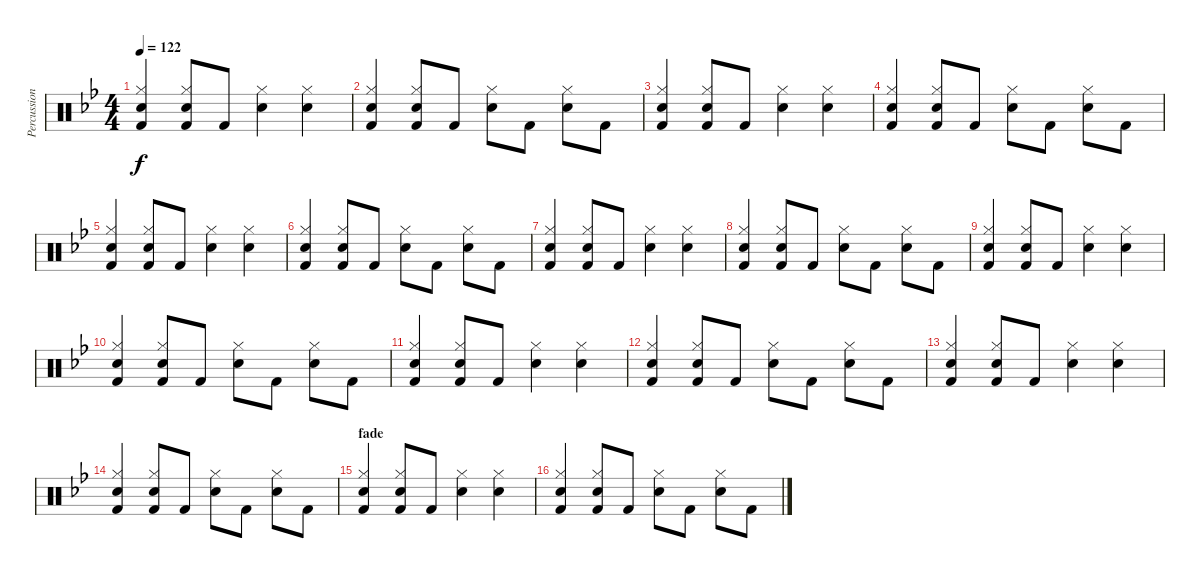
\track ("Percussion" "Percussion") {instrument percussion}
\staff {score}
\articulation defaults
\ts (4 4)
\tempo 122
\clef neutral
\ks bb
("Hand Clap (hit)" "Hi-Hat (closed)" "Kick (hit) 2").4{dy f} ("Hand Clap (hit)" "Hi-Hat (closed)" "Kick (hit) 2").8 "Kick (hit) 2".8 ("Hand Clap (hit)" "Hi-Hat (closed)").4 ("Hand Clap (hit)" "Hi-Hat (closed)").4 |
("Hand Clap (hit)" "Hi-Hat (closed)" "Kick (hit) 2").4 ("Hand Clap (hit)" "Hi-Hat (closed)" "Kick (hit) 2").8 "Kick (hit) 2".8 ("Hand Clap (hit)" "Hi-Hat (closed)").8 "Kick (hit) 2".8 ("Hand Clap (hit)" "Hi-Hat (closed)").8 "Kick (hit) 2".8 |
("Hand Clap (hit)" "Hi-Hat (closed)" "Kick (hit) 2").4 ("Hand Clap (hit)" "Hi-Hat (closed)" "Kick (hit) 2").8 "Kick (hit) 2".8 ("Hand Clap (hit)" "Hi-Hat (closed)").4 ("Hand Clap (hit)" "Hi-Hat (closed)").4 |
("Hand Clap (hit)" "Hi-Hat (closed)" "Kick (hit) 2").4 ("Hand Clap (hit)" "Hi-Hat (closed)" "Kick (hit) 2").8 "Kick (hit) 2".8 ("Hand Clap (hit)" "Hi-Hat (closed)").8 "Kick (hit) 2".8 ("Hand Clap (hit)" "Hi-Hat (closed)").8 "Kick (hit) 2".8 |
("Hand Clap (hit)" "Hi-Hat (closed)" "Kick (hit) 2").4 ("Hand Clap (hit)" "Hi-Hat (closed)" "Kick (hit) 2").8 "Kick (hit) 2".8 ("Hand Clap (hit)" "Hi-Hat (closed)").4 ("Hand Clap (hit)" "Hi-Hat (closed)").4 |
("Hand Clap (hit)" "Hi-Hat (closed)" "Kick (hit) 2").4 ("Hand Clap (hit)" "Hi-Hat (closed)" "Kick (hit) 2").8 "Kick (hit) 2".8 ("Hand Clap (hit)" "Hi-Hat (closed)").8 "Kick (hit) 2".8 ("Hand Clap (hit)" "Hi-Hat (closed)").8 "Kick (hit) 2".8 |
("Hand Clap (hit)" "Hi-Hat (closed)" "Kick (hit) 2").4 ("Hand Clap (hit)" "Hi-Hat (closed)" "Kick (hit) 2").8 "Kick (hit) 2".8 ("Hand Clap (hit)" "Hi-Hat (closed)").4 ("Hand Clap (hit)" "Hi-Hat (closed)").4 |
("Hand Clap (hit)" "Hi-Hat (closed)" "Kick (hit) 2").4 ("Hand Clap (hit)" "Hi-Hat (closed)" "Kick (hit) 2").8 "Kick (hit) 2".8 ("Hand Clap (hit)" "Hi-Hat (closed)").8 "Kick (hit) 2".8 ("Hand Clap (hit)" "Hi-Hat (closed)").8 "Kick (hit) 2".8 |
("Hand Clap (hit)" "Hi-Hat (closed)" "Kick (hit) 2").4 ("Hand Clap (hit)" "Hi-Hat (closed)" "Kick (hit) 2").8 "Kick (hit) 2".8 ("Hand Clap (hit)" "Hi-Hat (closed)").4 ("Hand Clap (hit)" "Hi-Hat (closed)").4 |
("Hand Clap (hit)" "Hi-Hat (closed)" "Kick (hit) 2").4 ("Hand Clap (hit)" "Hi-Hat (closed)" "Kick (hit) 2").8 "Kick (hit) 2".8 ("Hand Clap (hit)" "Hi-Hat (closed)").8 "Kick (hit) 2".8 ("Hand Clap (hit)" "Hi-Hat (closed)").8 "Kick (hit) 2".8 |
("Hand Clap (hit)" "Hi-Hat (closed)" "Kick (hit) 2").4 ("Hand Clap (hit)" "Hi-Hat (closed)" "Kick (hit) 2").8 "Kick (hit) 2".8 ("Hand Clap (hit)" "Hi-Hat (closed)").4 ("Hand Clap (hit)" "Hi-Hat (closed)").4 |
("Hand Clap (hit)" "Hi-Hat (closed)" "Kick (hit) 2").4 ("Hand Clap (hit)" "Hi-Hat (closed)" "Kick (hit) 2").8 "Kick (hit) 2".8 ("Hand Clap (hit)" "Hi-Hat (closed)").8 "Kick (hit) 2".8 ("Hand Clap (hit)" "Hi-Hat (closed)").8 "Kick (hit) 2".8 |
("Hand Clap (hit)" "Hi-Hat (closed)" "Kick (hit) 2").4 ("Hand Clap (hit)" "Hi-Hat (closed)" "Kick (hit) 2").8 "Kick (hit) 2".8 ("Hand Clap (hit)" "Hi-Hat (closed)").4 ("Hand Clap (hit)" "Hi-Hat (closed)").4 |
("Hand Clap (hit)" "Hi-Hat (closed)" "Kick (hit) 2").4 ("Hand Clap (hit)" "Hi-Hat (closed)" "Kick (hit) 2").8 "Kick (hit) 2".8 ("Hand Clap (hit)" "Hi-Hat (closed)").8 "Kick (hit) 2".8 ("Hand Clap (hit)" "Hi-Hat (closed)").8 "Kick (hit) 2".8 |
\section ("" "fade")
("Hand Clap (hit)" "Hi-Hat (closed)" "Kick (hit) 2").4{volume 0} ("Hand Clap (hit)" "Hi-Hat (closed)" "Kick (hit) 2").8 "Kick (hit) 2".8 ("Hand Clap (hit)" "Hi-Hat (closed)").4 ("Hand Clap (hit)" "Hi-Hat (closed)").4 |
("Hand Clap (hit)" "Hi-Hat (closed)" "Kick (hit) 2").4 ("Hand Clap (hit)" "Hi-Hat (closed)" "Kick (hit) 2").8 "Kick (hit) 2".8 ("Hand Clap (hit)" "Hi-Hat (closed)").8 "Kick (hit) 2".8 ("Hand Clap (hit)" "Hi-Hat (closed)").8 "Kick (hit) 2".8
